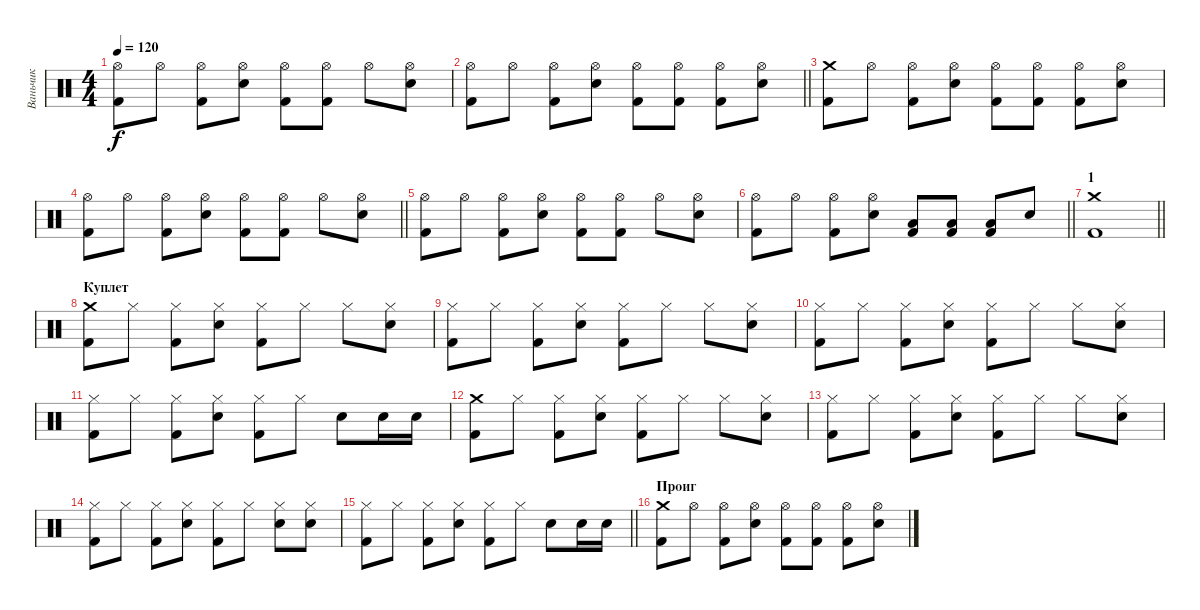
\track ("Ваньчик" "Ваньчик") {instrument percussion}
\staff {score}
\articulation defaults
\ts (4 4)
\tempo 120
\clef neutral
\ks c
("Hi-Hat (open)" "Kick (hit) 2").8{dy f} "Hi-Hat (open)".8 ("Hi-Hat (open)" "Kick (hit) 2").8 ("Hi-Hat (open)" "Snare (hit) 2").8 ("Hi-Hat (open)" "Kick (hit) 2").8 ("Hi-Hat (open)" "Kick (hit) 2").8 "Hi-Hat (open)".8 ("Hi-Hat (open)" "Snare (hit) 2").8 |
\barLineRight lightlight
("Hi-Hat (open)" "Kick (hit) 2").8 "Hi-Hat (open)".8 ("Hi-Hat (open)" "Kick (hit) 2").8 ("Hi-Hat (open)" "Snare (hit) 2").8 ("Hi-Hat (open)" "Kick (hit) 2").8 ("Hi-Hat (open)" "Kick (hit) 2").8 ("Hi-Hat (open)" "Kick (hit) 2").8 ("Hi-Hat (open)" "Snare (hit) 2").8 |
("Crash medium (hit)" "Kick (hit) 2").8 "Hi-Hat (open)".8 ("Hi-Hat (open)" "Kick (hit) 2").8 ("Hi-Hat (open)" "Snare (hit) 2").8 ("Hi-Hat (open)" "Kick (hit) 2").8 ("Hi-Hat (open)" "Kick (hit) 2").8 ("Hi-Hat (open)" "Kick (hit) 2").8 ("Hi-Hat (open)" "Snare (hit) 2").8 |
\barLineRight lightlight
("Hi-Hat (open)" "Kick (hit) 2").8 "Hi-Hat (open)".8 ("Hi-Hat (open)" "Kick (hit) 2").8 ("Hi-Hat (open)" "Snare (hit) 2").8 ("Hi-Hat (open)" "Kick (hit) 2").8 ("Hi-Hat (open)" "Kick (hit) 2").8 "Hi-Hat (open)".8 ("Hi-Hat (open)" "Snare (hit) 2").8 |
("Hi-Hat (open)" "Kick (hit) 2").8 "Hi-Hat (open)".8 ("Hi-Hat (open)" "Kick (hit) 2").8 ("Hi-Hat (open)" "Snare (hit) 2").8 ("Hi-Hat (open)" "Kick (hit) 2").8 ("Hi-Hat (open)" "Kick (hit) 2").8 "Hi-Hat (open)".8 ("Hi-Hat (open)" "Snare (hit) 2").8 |
\barLineRight lightlight
("Hi-Hat (open)" "Kick (hit) 2").8 "Hi-Hat (open)".8 ("Hi-Hat (open)" "Kick (hit) 2").8 ("Hi-Hat (open)" "Snare (hit) 2").8 ("Low Floor Tom (hit)" "Kick (hit) 2").8 ("Low Floor Tom (hit)" "Kick (hit) 2").8 ("Low Floor Tom (hit)" "Kick (hit) 2").8 "Snare (hit) 2".8 |
\section ("" "1")
\barLineRight lightlight
("Crash medium (hit)" "Kick (hit) 2").1 |
\section ("" "Куплет")
("Crash medium (hit)" "Kick (hit) 2").8 "Hi-Hat (closed)".8 ("Hi-Hat (closed)" "Kick (hit) 2").8 ("Hi-Hat (closed)" "Snare (hit) 2").8 ("Hi-Hat (closed)" "Kick (hit) 2").8 "Hi-Hat (closed)".8 "Hi-Hat (closed)".8 ("Hi-Hat (closed)" "Snare (hit) 2").8 |
("Hi-Hat (closed)" "Kick (hit) 2").8 "Hi-Hat (closed)".8 ("Hi-Hat (closed)" "Kick (hit) 2").8 ("Hi-Hat (closed)" "Snare (hit) 2").8 ("Hi-Hat (closed)" "Kick (hit) 2").8 "Hi-Hat (closed)".8 "Hi-Hat (closed)".8 ("Hi-Hat (closed)" "Snare (hit) 2").8 |
("Hi-Hat (closed)" "Kick (hit) 2").8 "Hi-Hat (closed)".8 ("Hi-Hat (closed)" "Kick (hit) 2").8 ("Hi-Hat (closed)" "Snare (hit) 2").8 ("Hi-Hat (closed)" "Kick (hit) 2").8 "Hi-Hat (closed)".8 "Hi-Hat (closed)".8 ("Hi-Hat (closed)" "Snare (hit) 2").8 |
("Hi-Hat (closed)" "Kick (hit) 2").8 "Hi-Hat (closed)".8 ("Hi-Hat (closed)" "Kick (hit) 2").8 ("Hi-Hat (closed)" "Snare (hit) 2").8 ("Hi-Hat (closed)" "Kick (hit) 2").8 "Hi-Hat (closed)".8 "Snare (hit) 2".8 "Snare (hit) 2".16 "Snare (hit) 2".16 |
("Crash medium (hit)" "Kick (hit) 2").8 "Hi-Hat (closed)".8 ("Hi-Hat (closed)" "Kick (hit) 2").8 ("Hi-Hat (closed)" "Snare (hit) 2").8 ("Hi-Hat (closed)" "Kick (hit) 2").8 "Hi-Hat (closed)".8 "Hi-Hat (closed)".8 ("Hi-Hat (closed)" "Snare (hit) 2").8 |
("Hi-Hat (closed)" "Kick (hit) 2").8 "Hi-Hat (closed)".8 ("Hi-Hat (closed)" "Kick (hit) 2").8 ("Hi-Hat (closed)" "Snare (hit) 2").8 ("Hi-Hat (closed)" "Kick (hit) 2").8 "Hi-Hat (closed)".8 "Hi-Hat (closed)".8 ("Hi-Hat (closed)" "Snare (hit) 2").8 |
("Hi-Hat (closed)" "Kick (hit) 2").8 "Hi-Hat (closed)".8 ("Hi-Hat (closed)" "Kick (hit) 2").8 ("Hi-Hat (closed)" "Snare (hit) 2").8 ("Hi-Hat (closed)" "Kick (hit) 2").8 "Hi-Hat (closed)".8 ("Hi-Hat (closed)" "Snare (hit) 2").8 ("Hi-Hat (closed)" "Snare (hit) 2").8 |
\barLineRight lightlight
("Hi-Hat (closed)" "Kick (hit) 2").8 "Hi-Hat (closed)".8 ("Hi-Hat (closed)" "Kick (hit) 2").8 ("Hi-Hat (closed)" "Snare (hit) 2").8 ("Hi-Hat (closed)" "Kick (hit) 2").8 "Hi-Hat (closed)".8 "Snare (hit) 2".8 "Snare (hit) 2".16 "Snare (hit) 2".16 |
\section ("" "Проиг")
("Crash medium (hit)" "Kick (hit) 2").8 "Hi-Hat (open)".8 ("Hi-Hat (open)" "Kick (hit) 2").8 ("Hi-Hat (open)" "Snare (hit) 2").8 ("Hi-Hat (open)" "Kick (hit) 2").8 ("Hi-Hat (open)" "Kick (hit) 2").8 ("Hi-Hat (open)" "Kick (hit) 2").8 ("Hi-Hat (open)" "Snare (hit) 2").8
